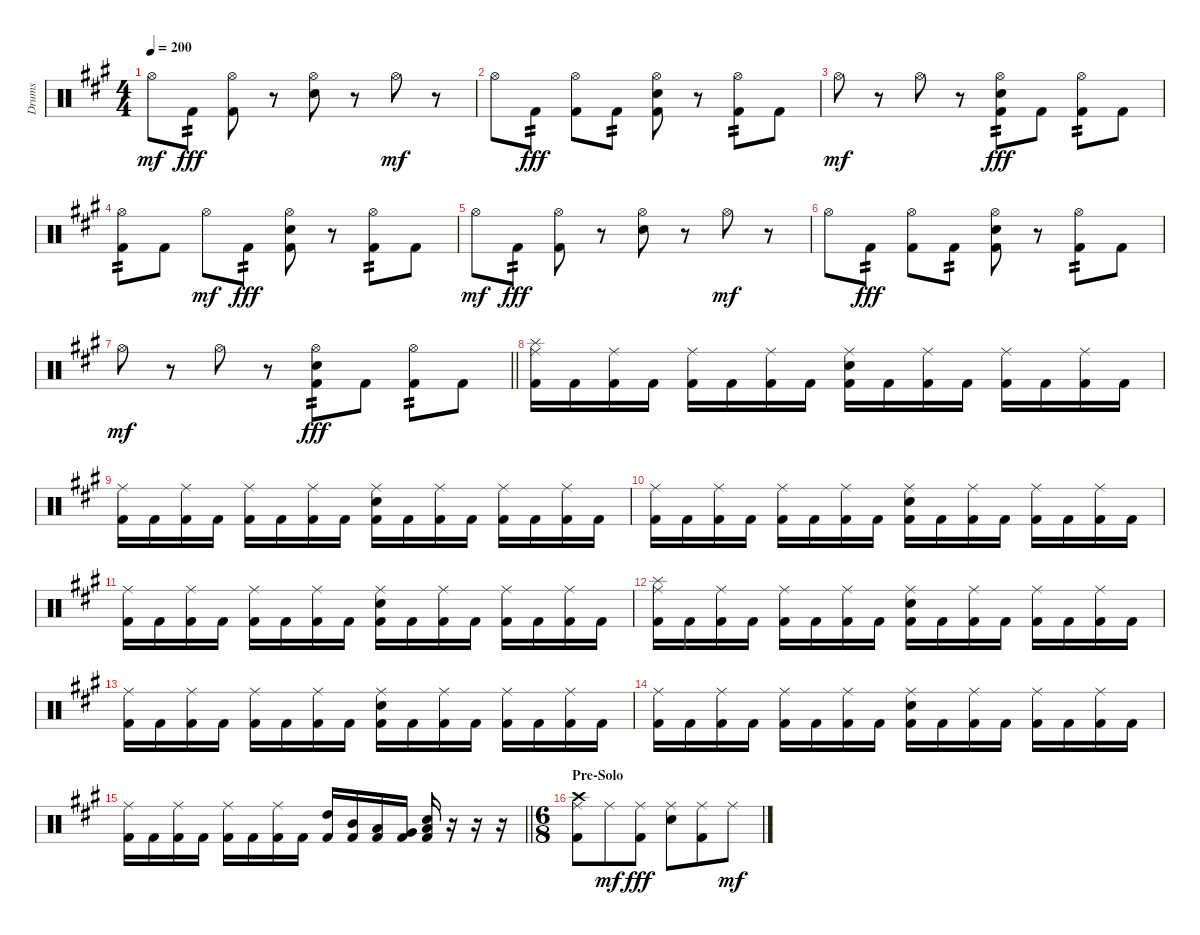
\track ("Drums" "Drums") {instrument percussion}
\staff {score}
\articulation defaults
\ts (4 4)
\tempo 200
\clef neutral
\ks f#minor "Hi-Hat (open)".8{dy mf} "Kick (hit) 2".8{tp 2 dy fff}
("Hi-Hat (open)" "Kick (hit) 2").8 r.8 ("Hi-Hat (open)" "Electric Snare (hit)").8 r.8 "Hi-Hat (open)".8{dy mf} r.8 |
"Hi-Hat (open)".8 "Kick (hit) 2".8{tp 2 dy fff} ("Hi-Hat (open)" "Kick (hit) 2").8 "Kick (hit) 2".8{tp 2} ("Hi-Hat (open)" "Electric Snare (hit)" "Kick (hit) 2").8 r.8 ("Hi-Hat (open)" "Kick (hit) 2").8{tp 2} "Kick (hit) 2".8 |
"Hi-Hat (open)".8{dy mf} r.8 "Hi-Hat (open)".8 r.8 ("Hi-Hat (open)" "Electric Snare (hit)" "Kick (hit) 2").8{tp 2 dy fff} "Kick (hit) 2".8 ("Hi-Hat (open)" "Kick (hit) 2").8{tp 2} "Kick (hit) 2".8 |
("Hi-Hat (open)" "Kick (hit) 2").8{tp 2} "Kick (hit) 2".8 "Hi-Hat (open)".8{dy mf} "Kick (hit) 2".8{tp 2 dy fff} ("Hi-Hat (open)" "Electric Snare (hit)" "Kick (hit) 2").8 r.8 ("Hi-Hat (open)" "Kick (hit) 2").8{tp 2} "Kick (hit) 2".8 |
"Hi-Hat (open)".8{dy mf} "Kick (hit) 2".8{tp 2 dy fff} ("Hi-Hat (open)" "Kick (hit) 2").8 r.8 ("Hi-Hat (open)" "Electric Snare (hit)").8 r.8 "Hi-Hat (open)".8{dy mf} r.8 |
"Hi-Hat (open)".8 "Kick (hit) 2".8{tp 2 dy fff} ("Hi-Hat (open)" "Kick (hit) 2").8 "Kick (hit) 2".8{tp 2} ("Hi-Hat (open)" "Electric Snare (hit)" "Kick (hit) 2").8 r.8 ("Hi-Hat (open)" "Kick (hit) 2").8{tp 2} "Kick (hit) 2".8 |
\barLineRight lightlight "Hi-Hat (open)".8{dy mf}
r.8 "Hi-Hat (open)".8 r.8 ("Hi-Hat (open)" "Electric Snare (hit)" "Kick (hit) 2").8{tp 2 dy fff} "Kick (hit) 2".8 ("Hi-Hat (open)" "Kick (hit) 2").8{tp 2} "Kick (hit) 2".8 |
("Ride (middle)" "Splash (hit)" "Kick (hit) 2").16 "Kick (hit) 2".16 ("Ride (middle)" "Kick (hit) 2").16 "Kick (hit) 2".16 ("Ride (middle)" "Kick (hit) 2").16 "Kick (hit) 2".16 ("Ride (middle)" "Kick (hit) 2").16 "Kick (hit) 2".16 ("Ride (middle)" "Electric Snare (hit)" "Kick (hit) 2").16 "Kick (hit) 2".16 ("Ride (middle)" "Kick (hit) 2").16 "Kick (hit) 2".16 ("Ride (middle)" "Kick (hit) 2").16 "Kick (hit) 2".16 ("Ride (middle)" "Kick (hit) 2").16 "Kick (hit) 2".16 |
("Ride (middle)" "Kick (hit) 2").16 "Kick (hit) 2".16 ("Ride (middle)" "Kick (hit) 2").16 "Kick (hit) 2".16 ("Ride (middle)" "Kick (hit) 2").16 "Kick (hit) 2".16 ("Ride (middle)" "Kick (hit) 2").16 "Kick (hit) 2".16 ("Ride (middle)" "Electric Snare (hit)" "Kick (hit) 2").16 "Kick (hit) 2".16 ("Ride (middle)" "Kick (hit) 2").16 "Kick (hit) 2".16 ("Ride (middle)" "Kick (hit) 2").16 "Kick (hit) 2".16 ("Ride (middle)" "Kick (hit) 2").16 "Kick (hit) 2".16 |
("Ride (middle)" "Kick (hit) 2").16 "Kick (hit) 2".16 ("Ride (middle)" "Kick (hit) 2").16 "Kick (hit) 2".16 ("Ride (middle)" "Kick (hit) 2").16 "Kick (hit) 2".16 ("Ride (middle)" "Kick (hit) 2").16 "Kick (hit) 2".16 ("Ride (middle)" "Electric Snare (hit)" "Kick (hit) 2").16 "Kick (hit) 2".16 ("Ride (middle)" "Kick (hit) 2").16 "Kick (hit) 2".16 ("Ride (middle)" "Kick (hit) 2").16 "Kick (hit) 2".16 ("Ride (middle)" "Kick (hit) 2").16 "Kick (hit) 2".16 |
("Ride (middle)" "Kick (hit) 2").16 "Kick (hit) 2".16 ("Ride (middle)" "Kick (hit) 2").16 "Kick (hit) 2".16 ("Ride (middle)" "Kick (hit) 2").16 "Kick (hit) 2".16 ("Ride (middle)" "Kick (hit) 2").16 "Kick (hit) 2".16 ("Ride (middle)" "Electric Snare (hit)" "Kick (hit) 2").16 "Kick (hit) 2".16 ("Ride (middle)" "Kick (hit) 2").16 "Kick (hit) 2".16 ("Ride (middle)" "Kick (hit) 2").16 "Kick (hit) 2".16 ("Ride (middle)" "Kick (hit) 2").16 "Kick (hit) 2".16 |
("Ride (middle)" "Splash (hit)" "Kick (hit) 2").16 "Kick (hit) 2".16 ("Ride (middle)" "Kick (hit) 2").16 "Kick (hit) 2".16 ("Ride (middle)" "Kick (hit) 2").16 "Kick (hit) 2".16 ("Ride (middle)" "Kick (hit) 2").16 "Kick (hit) 2".16 ("Ride (middle)" "Electric Snare (hit)" "Kick (hit) 2").16 "Kick (hit) 2".16 ("Ride (middle)" "Kick (hit) 2").16 "Kick (hit) 2".16 ("Ride (middle)" "Kick (hit) 2").16 "Kick (hit) 2".16 ("Ride (middle)" "Kick (hit) 2").16 "Kick (hit) 2".16 |
("Ride (middle)" "Kick (hit) 2").16 "Kick (hit) 2".16 ("Ride (middle)" "Kick (hit) 2").16 "Kick (hit) 2".16 ("Ride (middle)" "Kick (hit) 2").16 "Kick (hit) 2".16 ("Ride (middle)" "Kick (hit) 2").16 "Kick (hit) 2".16 ("Ride (middle)" "Electric Snare (hit)" "Kick (hit) 2").16 "Kick (hit) 2".16 ("Ride (middle)" "Kick (hit) 2").16 "Kick (hit) 2".16 ("Ride (middle)" "Kick (hit) 2").16 "Kick (hit) 2".16 ("Ride (middle)" "Kick (hit) 2").16 "Kick (hit) 2".16 |
("Ride (middle)" "Kick (hit) 2").16 "Kick (hit) 2".16 ("Ride (middle)" "Kick (hit) 2").16 "Kick (hit) 2".16 ("Ride (middle)" "Kick (hit) 2").16 "Kick (hit) 2".16 ("Ride (middle)" "Kick (hit) 2").16 "Kick (hit) 2".16 ("Ride (middle)" "Electric Snare (hit)" "Kick (hit) 2").16 "Kick (hit) 2".16 ("Ride (middle)" "Kick (hit) 2").16 "Kick (hit) 2".16 ("Ride (middle)" "Kick (hit) 2").16 "Kick (hit) 2".16 ("Ride (middle)" "Kick (hit) 2").16 "Kick (hit) 2".16 |
\barLineRight lightlight
("Ride (middle)" "Kick (hit) 2").16 "Kick (hit) 2".16 ("Ride (middle)" "Kick (hit) 2").16 "Kick (hit) 2".16 ("Ride (middle)" "Kick (hit) 2").16 "Kick (hit) 2".16 ("Ride (middle)" "Kick (hit) 2").16 "Kick (hit) 2".16 ("High Tom (hit)" "Kick (hit) 2").16 ("Mid Tom (hit)" "Kick (hit) 2").16 ("Low Tom (hit)" "Kick (hit) 2").16 ("Very Low Tom (hit)" "Kick (hit) 2").16 ("Low Floor Tom (hit)" "Electric Snare (hit)" "Kick (hit) 2").16 r.16 r.16 r.16 |
\ts (6 8)
\section ("" "Pre-Solo")
("Ride (middle)" "Crash high (hit)" "Kick (hit) 2").8 "Ride (middle)".8{dy mf} ("Ride (middle)" "Kick (hit) 2").8{dy fff} ("Ride (middle)" "Electric Snare (hit)").8 ("Ride (middle)" "Kick (hit) 2").8 "Ride (middle)".8{dy mf}
